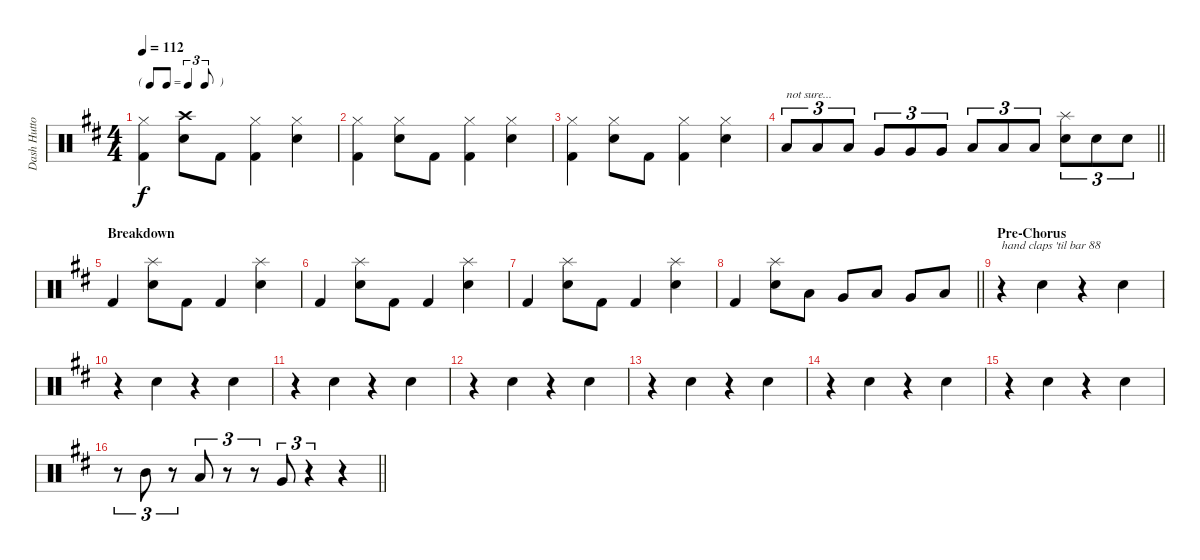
\track ("Dash Hutton" "Dash Hutto") {instrument percussion}
\staff {score}
\articulation defaults
\ts (4 4)
\tf triplet8th
\tempo 112
\clef neutral
\ks d
("Hi-Hat (closed)" "Kick (hit) 2").4{dy f} ("Crash high (hit)" "Snare (hit) 2").8 "Kick (hit) 2".8 ("Hi-Hat (closed)" "Kick (hit) 2").4 ("Hi-Hat (closed)" "Snare (hit) 2").4 |
("Hi-Hat (closed)" "Kick (hit) 2").4 ("Hi-Hat (closed)" "Snare (hit) 2").8 "Kick (hit) 2".8 ("Hi-Hat (closed)" "Kick (hit) 2").4 ("Hi-Hat (closed)" "Snare (hit) 2").4 |
("Hi-Hat (closed)" "Kick (hit) 2").4 ("Hi-Hat (closed)" "Snare (hit) 2").8 "Kick (hit) 2".8 ("Hi-Hat (closed)" "Kick (hit) 2").4 ("Hi-Hat (closed)" "Snare (hit) 2").4 |
\barLineRight lightlight "Low Tom (hit)".8{tu (3 2) txt "not sure..."} "Low Tom (hit)".8{tu (3 2)} "Low Tom (hit)".8{tu (3 2)} "Very Low Tom (hit)".8{tu (3 2)} "Very Low Tom (hit)".8{tu (3 2)} "Very Low Tom (hit)".8{tu (3 2)} "Low Tom (hit)".8{tu (3 2)} "Low Tom (hit)".8{tu (3 2)} "Low Tom (hit)".8{tu (3 2)}
("Splash (hit)" "Snare (hit) 2").8{tu (3 2)} "Snare (hit) 2".8{tu (3 2)} "Snare (hit) 2".8{tu (3 2)} |
\section ("" "Breakdown")
"Kick (hit) 2".4 ("Splash (hit)" "Snare (hit) 2").8 "Kick (hit) 2".8 "Kick (hit) 2".4 ("Splash (hit)" "Snare (hit) 2").4 |
"Kick (hit) 2".4 ("Splash (hit)" "Snare (hit) 2").8 "Kick (hit) 2".8 "Kick (hit) 2".4 ("Splash (hit)" "Snare (hit) 2").4 |
"Kick (hit) 2".4 ("Splash (hit)" "Snare (hit) 2").8 "Kick (hit) 2".8 "Kick (hit) 2".4 ("Splash (hit)" "Snare (hit) 2").4 |
\barLineRight lightlight "Kick (hit) 2".4
("Splash (hit)" "Snare (hit) 2").8 "Low Tom (hit)".8 "Very Low Tom (hit)".8 "Low Tom (hit)".8 "Very Low Tom (hit)".8 "Low Tom (hit)".8 |
\section ("" "Pre-Chorus")
r.4{txt "hand claps 'til bar 88"} "Hand Clap (hit)".4 r.4 "Hand Clap (hit)".4 |
r.4 "Hand Clap (hit)".4 r.4 "Hand Clap (hit)".4 |
r.4 "Hand Clap (hit)".4 r.4 "Hand Clap (hit)".4 |
r.4 "Hand Clap (hit)".4 r.4 "Hand Clap (hit)".4 |
r.4 "Hand Clap (hit)".4 r.4 "Hand Clap (hit)".4 |
r.4 "Hand Clap (hit)".4 r.4 "Hand Clap (hit)".4 |
r.4 "Hand Clap (hit)".4 r.4 "Hand Clap (hit)".4 |
\barLineRight lightlight
r.8{tu (3 2)} "Mid Tom (hit)".8{tu (3 2)} r.8{tu (3 2)} "Low Tom (hit)".8{tu (3 2)} r.8{tu (3 2)} r.8{tu (3 2)} "Very Low Tom (hit)".8{tu (3 2)} r.4{tu (3 2)} r.4
